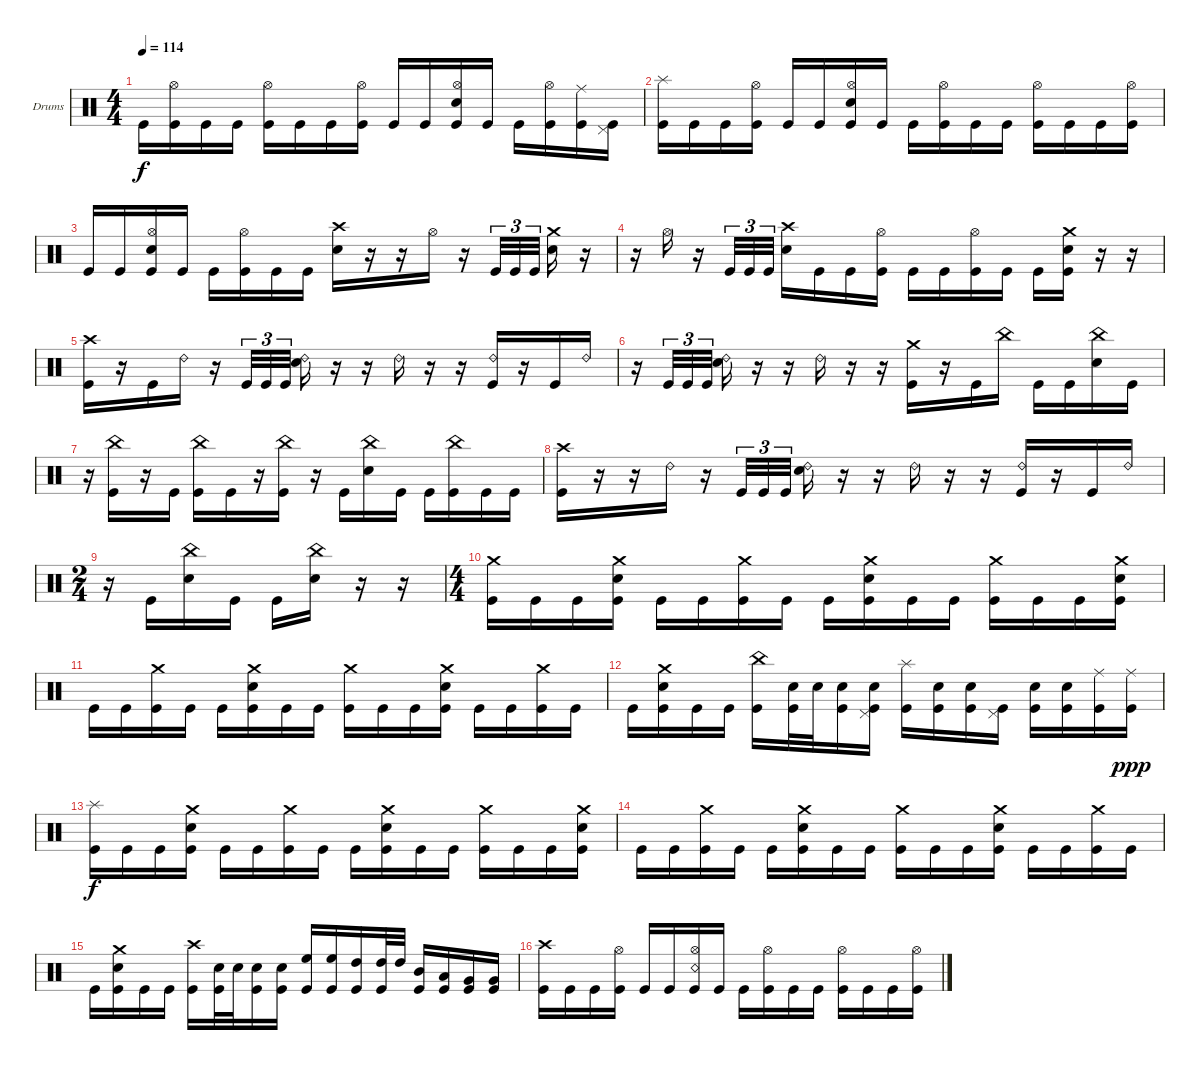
\bracketExtendMode groupsimilarinstruments
\firstSystemTrackNameOrientation horizontal
\otherSystemsTrackNameOrientation horizontal
\track ("Drumkit" "Drums") {instrument percussion}
\staff {score}
\articulation defaults
\ts (4 4)
\tempo 114
\clef neutral
\ks c "Kick (hit)".16{dy f}
("Hi-Hat (open)" "Kick (hit)").16 "Kick (hit)".16 "Kick (hit)".16 ("Hi-Hat (open)" "Kick (hit)").16 "Kick (hit)".16 "Kick (hit)".16 ("Hi-Hat (open)" "Kick (hit)").16 "Kick (hit)".16 "Kick (hit)".16 ("Hi-Hat (open)" "Snare (hit) 2" "Kick (hit)").16 "Kick (hit)".16 "Kick (hit)".16 ("Hi-Hat (open)" "Kick (hit)").16 ("Ride (middle)" "Kick (hit)").16 ("Pedal Hi-Hat (hit)" "Kick (hit)").16 |
("Splash (hit)" "Kick (hit)").16 "Kick (hit)".16 "Kick (hit)".16 ("Hi-Hat (open)" "Kick (hit)").16 "Kick (hit)".16 "Kick (hit)".16 ("Hi-Hat (open)" "Snare (hit) 2" "Kick (hit)").16 "Kick (hit)".16 "Kick (hit)".16 ("Hi-Hat (open)" "Kick (hit)").16 "Kick (hit)".16 "Kick (hit)".16 ("Hi-Hat (open)" "Kick (hit)").16 "Kick (hit)".16 "Kick (hit)".16 ("Hi-Hat (open)" "Kick (hit)").16 |
"Kick (hit)".16 "Kick (hit)".16 ("Hi-Hat (open)" "Snare (hit) 2" "Kick (hit)").16 "Kick (hit)".16 "Kick (hit)".16 ("Hi-Hat (open)" "Kick (hit)").16 "Kick (hit)".16 "Kick (hit)".16 ("Crash high (hit)" "Snare (hit) 2").16 r.16 r.16 "Hi-Hat (open)".16 r.16 "Kick (hit)".32{tu (3 2)} "Kick (hit)".32{tu (3 2)} "Kick (hit)".32{tu (3 2)} ("Crash medium (hit)" "Snare (hit) 2").16 r.16 |
r.16 "Hi-Hat (open)".16 r.16 "Kick (hit)".32{tu (3 2)} "Kick (hit)".32{tu (3 2)} "Kick (hit)".32{tu (3 2)} ("Crash high (hit)" "Snare (hit) 2").16 "Kick (hit)".16 "Kick (hit)".16 ("Hi-Hat (open)" "Kick (hit)").16 "Kick (hit)".16 "Kick (hit)".16 ("Hi-Hat (open)" "Kick (hit)").16 "Kick (hit)".16 "Kick (hit)".16 ("Crash medium (hit)" "Snare (hit) 2" "Kick (hit)").16 r.16 r.16 |
("Crash high (hit)" "Kick (hit)").16 r.16 "Kick (hit)".16 "Ride (bell) 2".16 r.16 "Kick (hit)".32{tu (3 2)} "Kick (hit)".32{tu (3 2)} "Kick (hit)".32{tu (3 2)} ("Ride (bell) 2" "Snare (hit) 2").16 r.16 r.16 "Ride (bell) 2".16 r.16 r.16 ("Ride (bell) 2" "Kick (hit)").16 r.16 "Kick (hit)".16 "Ride (bell) 2".16 |
r.16 "Kick (hit)".32{tu (3 2)} "Kick (hit)".32{tu (3 2)} "Kick (hit)".32{tu (3 2)} ("Ride (bell) 2" "Snare (hit) 2").16 r.16 r.16 "Ride (bell) 2".16 r.16 r.16 ("Crash medium (hit)" "Kick (hit)").16 r.16 "Kick (hit)".16 "China (hit)".16 "Kick (hit)".16 "Kick (hit)".16 ("China (hit)" "Snare (hit) 2").16 "Kick (hit)".16 |
r.16 ("China (hit)" "Kick (hit)").16 r.16 "Kick (hit)".16 ("China (hit)" "Kick (hit)").16 "Kick (hit)".16 r.16 ("China (hit)" "Kick (hit)").16 r.16 "Kick (hit)".16 ("China (hit)" "Snare (hit) 2").16 "Kick (hit)".16 "Kick (hit)".16 ("China (hit)" "Kick (hit)").16 "Kick (hit)".16 "Kick (hit)".16 |
("Crash high (hit)" "Kick (hit)").16 r.16 r.16 "Ride (bell) 2".16 r.16 "Kick (hit)".32{tu (3 2)} "Kick (hit)".32{tu (3 2)} "Kick (hit)".32{tu (3 2)} ("Ride (bell) 2" "Snare (hit) 2").16 r.16 r.16 "Ride (bell) 2".16 r.16 r.16 ("Ride (bell) 2" "Kick (hit)").16 r.16 "Kick (hit)".16 "Ride (bell) 2".16 |
\ts (2 4)
r.16 "Kick (hit)".16 ("China (hit)" "Snare (hit) 2").16 "Kick (hit)".16 "Kick (hit)".16 ("China (hit)" "Snare (hit) 2").16 r.16 r.16 |
\ts (4 4)
("Crash medium (hit)" "Kick (hit)").16 "Kick (hit)".16 "Kick (hit)".16 ("Crash medium (hit)" "Snare (hit) 2" "Kick (hit)").16 "Kick (hit)".16 "Kick (hit)".16 ("Crash medium (hit)" "Kick (hit)").16 "Kick (hit)".16 "Kick (hit)".16 ("Crash medium (hit)" "Snare (hit) 2" "Kick (hit)").16 "Kick (hit)".16 "Kick (hit)".16 ("Crash medium (hit)" "Kick (hit)").16 "Kick (hit)".16 "Kick (hit)".16 ("Crash medium (hit)" "Snare (hit) 2" "Kick (hit)").16 |
"Kick (hit)".16 "Kick (hit)".16 ("Crash medium (hit)" "Kick (hit)").16 "Kick (hit)".16 "Kick (hit)".16 ("Crash medium (hit)" "Snare (hit) 2" "Kick (hit)").16 "Kick (hit)".16 "Kick (hit)".16 ("Crash medium (hit)" "Kick (hit)").16 "Kick (hit)".16 "Kick (hit)".16 ("Crash medium (hit)" "Snare (hit) 2" "Kick (hit)").16 "Kick (hit)".16 "Kick (hit)".16 ("Crash medium (hit)" "Kick (hit)").16 "Kick (hit)".16 |
"Kick (hit)".16 ("Crash medium (hit)" "Snare (hit) 2" "Kick (hit)").16 "Kick (hit)".16 "Kick (hit)".16 ("China (hit)" "Kick (hit)").16 ("Snare (hit) 2" "Kick (hit)").32 "Snare (hit) 2".32 ("Snare (hit) 2" "Kick (hit)").16 ("Pedal Hi-Hat (hit)" "Snare (hit) 2" "Kick (hit)").16 ("Splash (hit)" "Kick (hit)").16 ("Snare (hit) 2" "Kick (hit)").16 ("Snare (hit) 2" "Kick (hit)").16 ("Pedal Hi-Hat (hit)" "Kick (hit)").16 ("Snare (hit) 2" "Kick (hit)").16 ("Snare (hit) 2" "Kick (hit)").16 ("Ride (middle)" "Kick (hit)").16 ("Ride (middle)" "Kick (hit)").16{dy ppp} |
("Splash (hit)" "Kick (hit)").16{dy f} "Kick (hit)".16 "Kick (hit)".16 ("Crash medium (hit)" "Snare (hit) 2" "Kick (hit)").16 "Kick (hit)".16 "Kick (hit)".16 ("Crash medium (hit)" "Kick (hit)").16 "Kick (hit)".16 "Kick (hit)".16 ("Crash medium (hit)" "Snare (hit) 2" "Kick (hit)").16 "Kick (hit)".16 "Kick (hit)".16 ("Crash medium (hit)" "Kick (hit)").16 "Kick (hit)".16 "Kick (hit)".16 ("Crash medium (hit)" "Snare (hit) 2" "Kick (hit)").16 |
"Kick (hit)".16 "Kick (hit)".16 ("Crash medium (hit)" "Kick (hit)").16 "Kick (hit)".16 "Kick (hit)".16 ("Crash medium (hit)" "Snare (hit) 2" "Kick (hit)").16 "Kick (hit)".16 "Kick (hit)".16 ("Crash medium (hit)" "Kick (hit)").16 "Kick (hit)".16 "Kick (hit)".16 ("Crash medium (hit)" "Snare (hit) 2" "Kick (hit)").16 "Kick (hit)".16 "Kick (hit)".16 ("Crash medium (hit)" "Kick (hit)").16 "Kick (hit)".16 |
"Kick (hit)".16 ("Crash medium (hit)" "Snare (hit) 2" "Kick (hit)").16 "Kick (hit)".16 "Kick (hit)".16 ("Crash high (hit)" "Kick (hit)").16 ("Snare (hit) 2" "Kick (hit)").32 "Snare (hit) 2".32 ("Snare (hit) 2" "Kick (hit)").16 ("Snare (hit) 2" "Kick (hit)").16 ("High Floor Tom (hit)" "Kick (hit)").16 ("High Floor Tom (hit)" "Kick (hit)").16 ("High Tom (hit)" "Kick (hit)").16 ("High Tom (hit)" "Kick (hit)").32 "High Tom (hit)".32 ("Mid Tom (hit)" "Kick (hit)").16 ("Low Tom (hit)" "Kick (hit)").16 ("Very Low Tom (hit)" "Kick (hit)").16 ("Very Low Tom (hit)" "Kick (hit)").16 |
("Crash high (hit)" "Kick (hit)").16 "Kick (hit)".16 "Kick (hit)".16 ("Hi-Hat (open)" "Kick (hit)").16 "Kick (hit)".16 "Kick (hit)".16 ("Hi-Hat (open)" "Snare (rim shot)" "Kick (hit)").16 "Kick (hit)".16 "Kick (hit)".16 ("Hi-Hat (open)" "Kick (hit)").16 "Kick (hit)".16 "Kick (hit)".16 ("Hi-Hat (open)" "Kick (hit)").16 "Kick (hit)".16 "Kick (hit)".16 ("Hi-Hat (open)" "Kick (hit)").16
